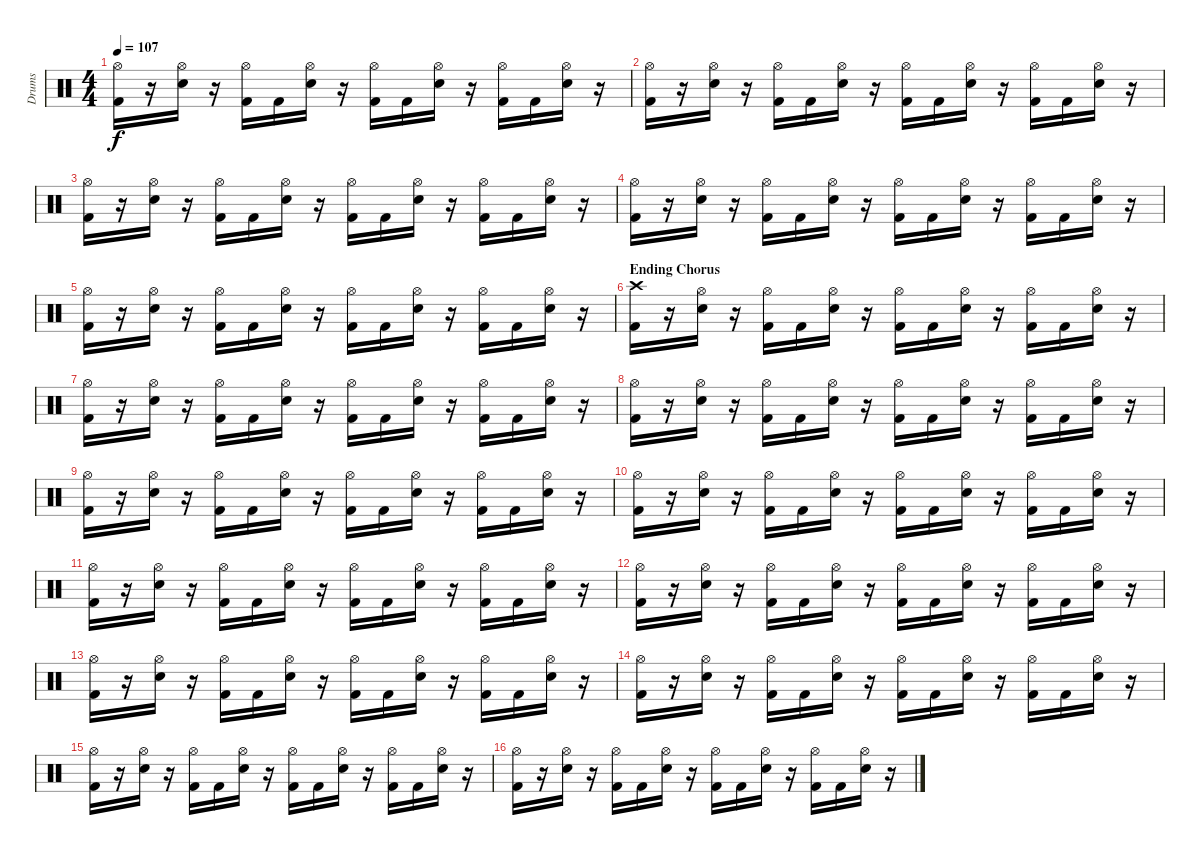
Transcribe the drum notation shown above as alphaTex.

\track ("Drums" "Drums") {instrument percussion}
\staff {score}
\articulation defaults
\ts (4 4)
\tempo 107
\clef neutral
\ks c
("Hi-Hat (open)" "Kick (hit) 2").16{dy f} r.16 ("Hi-Hat (open)" "Electric Snare (hit)").16 r.16 ("Hi-Hat (open)" "Kick (hit) 2").16 "Kick (hit) 2".16 ("Hi-Hat (open)" "Electric Snare (hit)").16 r.16 ("Hi-Hat (open)" "Kick (hit) 2").16 "Kick (hit) 2".16 ("Hi-Hat (open)" "Electric Snare (hit)").16 r.16 ("Hi-Hat (open)" "Kick (hit) 2").16 "Kick (hit) 2".16 ("Hi-Hat (open)" "Electric Snare (hit)").16 r.16 |
("Hi-Hat (open)" "Kick (hit) 2").16 r.16 ("Hi-Hat (open)" "Electric Snare (hit)").16 r.16 ("Hi-Hat (open)" "Kick (hit) 2").16 "Kick (hit) 2".16 ("Hi-Hat (open)" "Electric Snare (hit)").16 r.16 ("Hi-Hat (open)" "Kick (hit) 2").16 "Kick (hit) 2".16 ("Hi-Hat (open)" "Electric Snare (hit)").16 r.16 ("Hi-Hat (open)" "Kick (hit) 2").16 "Kick (hit) 2".16 ("Hi-Hat (open)" "Electric Snare (hit)").16 r.16 |
("Hi-Hat (open)" "Kick (hit) 2").16 r.16 ("Hi-Hat (open)" "Electric Snare (hit)").16 r.16 ("Hi-Hat (open)" "Kick (hit) 2").16 "Kick (hit) 2".16 ("Hi-Hat (open)" "Electric Snare (hit)").16 r.16 ("Hi-Hat (open)" "Kick (hit) 2").16 "Kick (hit) 2".16 ("Hi-Hat (open)" "Electric Snare (hit)").16 r.16 ("Hi-Hat (open)" "Kick (hit) 2").16 "Kick (hit) 2".16 ("Hi-Hat (open)" "Electric Snare (hit)").16 r.16 |
("Hi-Hat (open)" "Kick (hit) 2").16 r.16 ("Hi-Hat (open)" "Electric Snare (hit)").16 r.16 ("Hi-Hat (open)" "Kick (hit) 2").16 "Kick (hit) 2".16 ("Hi-Hat (open)" "Electric Snare (hit)").16 r.16 ("Hi-Hat (open)" "Kick (hit) 2").16 "Kick (hit) 2".16 ("Hi-Hat (open)" "Electric Snare (hit)").16 r.16 ("Hi-Hat (open)" "Kick (hit) 2").16 "Kick (hit) 2".16 ("Hi-Hat (open)" "Electric Snare (hit)").16 r.16 |
("Hi-Hat (open)" "Kick (hit) 2").16 r.16 ("Hi-Hat (open)" "Electric Snare (hit)").16 r.16 ("Hi-Hat (open)" "Kick (hit) 2").16 "Kick (hit) 2".16 ("Hi-Hat (open)" "Electric Snare (hit)").16 r.16 ("Hi-Hat (open)" "Kick (hit) 2").16 "Kick (hit) 2".16 ("Hi-Hat (open)" "Electric Snare (hit)").16 r.16 ("Hi-Hat (open)" "Kick (hit) 2").16 "Kick (hit) 2".16 ("Hi-Hat (open)" "Electric Snare (hit)").16 r.16 |
\section ("" "Ending Chorus")
("Crash high (hit)" "Kick (hit) 2").16 r.16 ("Hi-Hat (open)" "Electric Snare (hit)").16 r.16 ("Hi-Hat (open)" "Kick (hit) 2").16 "Kick (hit) 2".16 ("Hi-Hat (open)" "Electric Snare (hit)").16 r.16 ("Hi-Hat (open)" "Kick (hit) 2").16 "Kick (hit) 2".16 ("Hi-Hat (open)" "Electric Snare (hit)").16 r.16 ("Hi-Hat (open)" "Kick (hit) 2").16 "Kick (hit) 2".16 ("Hi-Hat (open)" "Electric Snare (hit)").16 r.16 |
("Hi-Hat (open)" "Kick (hit) 2").16 r.16 ("Hi-Hat (open)" "Electric Snare (hit)").16 r.16 ("Hi-Hat (open)" "Kick (hit) 2").16 "Kick (hit) 2".16 ("Hi-Hat (open)" "Electric Snare (hit)").16 r.16 ("Hi-Hat (open)" "Kick (hit) 2").16 "Kick (hit) 2".16 ("Hi-Hat (open)" "Electric Snare (hit)").16 r.16 ("Hi-Hat (open)" "Kick (hit) 2").16 "Kick (hit) 2".16 ("Hi-Hat (open)" "Electric Snare (hit)").16 r.16 |
("Hi-Hat (open)" "Kick (hit) 2").16 r.16 ("Hi-Hat (open)" "Electric Snare (hit)").16 r.16 ("Hi-Hat (open)" "Kick (hit) 2").16 "Kick (hit) 2".16 ("Hi-Hat (open)" "Electric Snare (hit)").16 r.16 ("Hi-Hat (open)" "Kick (hit) 2").16 "Kick (hit) 2".16 ("Hi-Hat (open)" "Electric Snare (hit)").16 r.16 ("Hi-Hat (open)" "Kick (hit) 2").16 "Kick (hit) 2".16 ("Hi-Hat (open)" "Electric Snare (hit)").16 r.16 |
("Hi-Hat (open)" "Kick (hit) 2").16 r.16 ("Hi-Hat (open)" "Electric Snare (hit)").16 r.16 ("Hi-Hat (open)" "Kick (hit) 2").16 "Kick (hit) 2".16 ("Hi-Hat (open)" "Electric Snare (hit)").16 r.16 ("Hi-Hat (open)" "Kick (hit) 2").16 "Kick (hit) 2".16 ("Hi-Hat (open)" "Electric Snare (hit)").16 r.16 ("Hi-Hat (open)" "Kick (hit) 2").16 "Kick (hit) 2".16 ("Hi-Hat (open)" "Electric Snare (hit)").16 r.16 |
("Hi-Hat (open)" "Kick (hit) 2").16 r.16 ("Hi-Hat (open)" "Electric Snare (hit)").16 r.16 ("Hi-Hat (open)" "Kick (hit) 2").16 "Kick (hit) 2".16 ("Hi-Hat (open)" "Electric Snare (hit)").16 r.16 ("Hi-Hat (open)" "Kick (hit) 2").16 "Kick (hit) 2".16 ("Hi-Hat (open)" "Electric Snare (hit)").16 r.16 ("Hi-Hat (open)" "Kick (hit) 2").16 "Kick (hit) 2".16 ("Hi-Hat (open)" "Electric Snare (hit)").16 r.16 |
("Hi-Hat (open)" "Kick (hit) 2").16 r.16 ("Hi-Hat (open)" "Electric Snare (hit)").16 r.16 ("Hi-Hat (open)" "Kick (hit) 2").16 "Kick (hit) 2".16 ("Hi-Hat (open)" "Electric Snare (hit)").16 r.16 ("Hi-Hat (open)" "Kick (hit) 2").16 "Kick (hit) 2".16 ("Hi-Hat (open)" "Electric Snare (hit)").16 r.16 ("Hi-Hat (open)" "Kick (hit) 2").16 "Kick (hit) 2".16 ("Hi-Hat (open)" "Electric Snare (hit)").16 r.16 |
("Hi-Hat (open)" "Kick (hit) 2").16 r.16 ("Hi-Hat (open)" "Electric Snare (hit)").16 r.16 ("Hi-Hat (open)" "Kick (hit) 2").16 "Kick (hit) 2".16 ("Hi-Hat (open)" "Electric Snare (hit)").16 r.16 ("Hi-Hat (open)" "Kick (hit) 2").16 "Kick (hit) 2".16 ("Hi-Hat (open)" "Electric Snare (hit)").16 r.16 ("Hi-Hat (open)" "Kick (hit) 2").16 "Kick (hit) 2".16 ("Hi-Hat (open)" "Electric Snare (hit)").16 r.16 |
("Hi-Hat (open)" "Kick (hit) 2").16 r.16 ("Hi-Hat (open)" "Electric Snare (hit)").16 r.16 ("Hi-Hat (open)" "Kick (hit) 2").16 "Kick (hit) 2".16 ("Hi-Hat (open)" "Electric Snare (hit)").16 r.16 ("Hi-Hat (open)" "Kick (hit) 2").16 "Kick (hit) 2".16 ("Hi-Hat (open)" "Electric Snare (hit)").16 r.16 ("Hi-Hat (open)" "Kick (hit) 2").16 "Kick (hit) 2".16 ("Hi-Hat (open)" "Electric Snare (hit)").16 r.16 |
("Hi-Hat (open)" "Kick (hit) 2").16 r.16 ("Hi-Hat (open)" "Electric Snare (hit)").16 r.16 ("Hi-Hat (open)" "Kick (hit) 2").16 "Kick (hit) 2".16 ("Hi-Hat (open)" "Electric Snare (hit)").16 r.16 ("Hi-Hat (open)" "Kick (hit) 2").16 "Kick (hit) 2".16 ("Hi-Hat (open)" "Electric Snare (hit)").16 r.16 ("Hi-Hat (open)" "Kick (hit) 2").16 "Kick (hit) 2".16 ("Hi-Hat (open)" "Electric Snare (hit)").16 r.16 |
("Hi-Hat (open)" "Kick (hit) 2").16 r.16 ("Hi-Hat (open)" "Electric Snare (hit)").16 r.16 ("Hi-Hat (open)" "Kick (hit) 2").16 "Kick (hit) 2".16 ("Hi-Hat (open)" "Electric Snare (hit)").16 r.16 ("Hi-Hat (open)" "Kick (hit) 2").16 "Kick (hit) 2".16 ("Hi-Hat (open)" "Electric Snare (hit)").16 r.16 ("Hi-Hat (open)" "Kick (hit) 2").16 "Kick (hit) 2".16 ("Hi-Hat (open)" "Electric Snare (hit)").16 r.16 |
("Hi-Hat (open)" "Kick (hit) 2").16 r.16 ("Hi-Hat (open)" "Electric Snare (hit)").16 r.16 ("Hi-Hat (open)" "Kick (hit) 2").16 "Kick (hit) 2".16 ("Hi-Hat (open)" "Electric Snare (hit)").16 r.16 ("Hi-Hat (open)" "Kick (hit) 2").16 "Kick (hit) 2".16 ("Hi-Hat (open)" "Electric Snare (hit)").16 r.16 ("Hi-Hat (open)" "Kick (hit) 2").16 "Kick (hit) 2".16 ("Hi-Hat (open)" "Electric Snare (hit)").16 r.16
